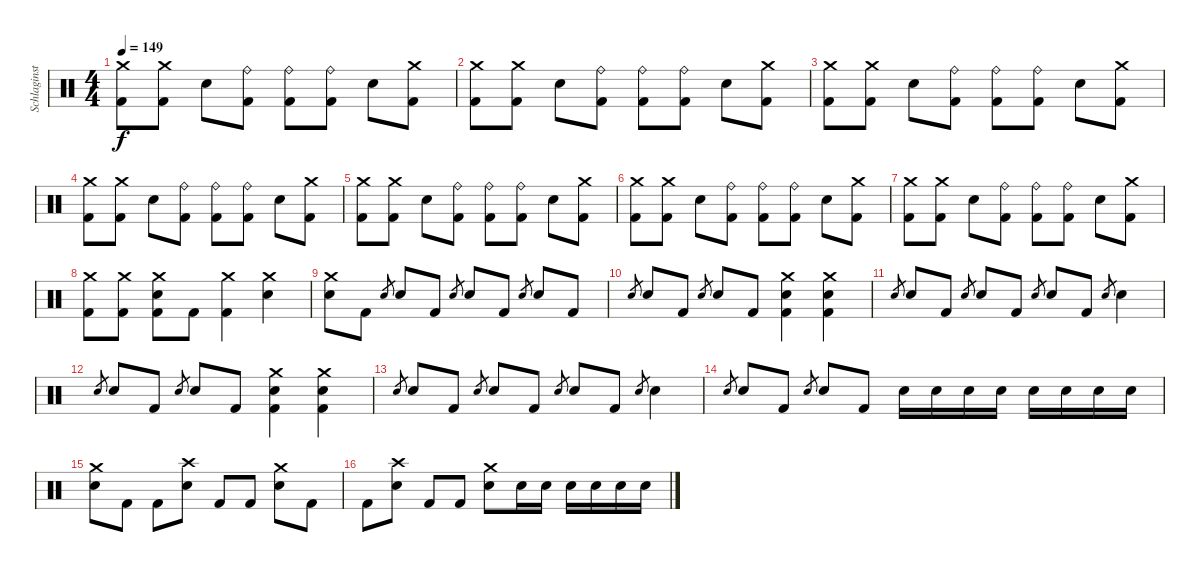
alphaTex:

\track ("Schlaginstrumente - Auswahl" "Schlaginst") {instrument percussion}
\staff {score}
\articulation defaults
\ts (4 4)
\tempo 149
\clef neutral
\ks c
("Crash medium (hit)" "Kick (hit) 2").8{dy f} ("Crash medium (hit)" "Kick (hit) 2").8 "Electric Snare (hit)".8 ("Ride (bell)" "Kick (hit) 2").8 ("Ride (bell)" "Kick (hit) 2").8 ("Ride (bell)" "Kick (hit) 2").8 "Electric Snare (hit)".8 ("Crash medium (hit)" "Kick (hit) 2").8 |
("Crash medium (hit)" "Kick (hit) 2").8 ("Crash medium (hit)" "Kick (hit) 2").8 "Electric Snare (hit)".8 ("Ride (bell)" "Kick (hit) 2").8 ("Ride (bell)" "Kick (hit) 2").8 ("Ride (bell)" "Kick (hit) 2").8 "Electric Snare (hit)".8 ("Crash medium (hit)" "Kick (hit) 2").8 |
("Crash medium (hit)" "Kick (hit) 2").8 ("Crash medium (hit)" "Kick (hit) 2").8 "Electric Snare (hit)".8 ("Ride (bell)" "Kick (hit) 2").8 ("Ride (bell)" "Kick (hit) 2").8 ("Ride (bell)" "Kick (hit) 2").8 "Electric Snare (hit)".8 ("Crash medium (hit)" "Kick (hit) 2").8 |
("Crash medium (hit)" "Kick (hit) 2").8 ("Crash medium (hit)" "Kick (hit) 2").8 "Electric Snare (hit)".8 ("Ride (bell)" "Kick (hit) 2").8 ("Ride (bell)" "Kick (hit) 2").8 ("Ride (bell)" "Kick (hit) 2").8 "Electric Snare (hit)".8 ("Crash medium (hit)" "Kick (hit) 2").8 |
("Crash medium (hit)" "Kick (hit) 2").8 ("Crash medium (hit)" "Kick (hit) 2").8 "Electric Snare (hit)".8 ("Ride (bell)" "Kick (hit) 2").8 ("Ride (bell)" "Kick (hit) 2").8 ("Ride (bell)" "Kick (hit) 2").8 "Electric Snare (hit)".8 ("Crash medium (hit)" "Kick (hit) 2").8 |
("Crash medium (hit)" "Kick (hit) 2").8 ("Crash medium (hit)" "Kick (hit) 2").8 "Electric Snare (hit)".8 ("Ride (bell)" "Kick (hit) 2").8 ("Ride (bell)" "Kick (hit) 2").8 ("Ride (bell)" "Kick (hit) 2").8 "Electric Snare (hit)".8 ("Crash medium (hit)" "Kick (hit) 2").8 |
("Crash medium (hit)" "Kick (hit) 2").8 ("Crash medium (hit)" "Kick (hit) 2").8 "Electric Snare (hit)".8 ("Ride (bell)" "Kick (hit) 2").8 ("Ride (bell)" "Kick (hit) 2").8 ("Ride (bell)" "Kick (hit) 2").8 "Electric Snare (hit)".8 ("Crash medium (hit)" "Kick (hit) 2").8 |
("Crash medium (hit)" "Kick (hit) 2").8 ("Crash medium (hit)" "Kick (hit) 2").8 ("Crash medium (hit)" "Electric Snare (hit)" "Kick (hit) 2").8 "Kick (hit) 2".8 ("Crash medium (hit)" "Kick (hit) 2").4 ("Crash medium (hit)" "Electric Snare (hit)").4 |
("Crash medium (hit)" "Electric Snare (hit)").8 "Kick (hit) 2".8 "Electric Snare (hit)".8{gr} "Electric Snare (hit)".8 "Kick (hit) 2".8 "Electric Snare (hit)".8{gr} "Electric Snare (hit)".8 "Kick (hit) 2".8 "Electric Snare (hit)".8{gr} "Electric Snare (hit)".8 "Kick (hit) 2".8 |
"Electric Snare (hit)".8{gr} "Electric Snare (hit)".8 "Kick (hit) 2".8 "Electric Snare (hit)".8{gr} "Electric Snare (hit)".8 "Kick (hit) 2".8 ("Crash medium (hit)" "Electric Snare (hit)" "Kick (hit) 2").4 ("Crash medium (hit)" "Electric Snare (hit)" "Kick (hit) 2").4 |
"Electric Snare (hit)".8{gr} "Electric Snare (hit)".8 "Kick (hit) 2".8 "Electric Snare (hit)".8{gr} "Electric Snare (hit)".8 "Kick (hit) 2".8 "Electric Snare (hit)".8{gr} "Electric Snare (hit)".8 "Kick (hit) 2".8 "Electric Snare (hit)".8{gr} "Electric Snare (hit)".4 |
"Electric Snare (hit)".8{gr} "Electric Snare (hit)".8 "Kick (hit) 2".8 "Electric Snare (hit)".8{gr} "Electric Snare (hit)".8 "Kick (hit) 2".8 ("Crash medium (hit)" "Electric Snare (hit)" "Kick (hit) 2").4 ("Crash medium (hit)" "Electric Snare (hit)" "Kick (hit) 2").4 |
"Electric Snare (hit)".8{gr} "Electric Snare (hit)".8 "Kick (hit) 2".8 "Electric Snare (hit)".8{gr} "Electric Snare (hit)".8 "Kick (hit) 2".8 "Electric Snare (hit)".8{gr} "Electric Snare (hit)".8 "Kick (hit) 2".8 "Electric Snare (hit)".8{gr} "Electric Snare (hit)".4 |
"Electric Snare (hit)".8{gr} "Electric Snare (hit)".8 "Kick (hit) 2".8 "Electric Snare (hit)".8{gr} "Electric Snare (hit)".8 "Kick (hit) 2".8 "Electric Snare (hit)".16 "Electric Snare (hit)".16 "Electric Snare (hit)".16 "Electric Snare (hit)".16 "Electric Snare (hit)".16 "Electric Snare (hit)".16 "Electric Snare (hit)".16 "Electric Snare (hit)".16 |
("Crash medium (hit)" "Electric Snare (hit)").8 "Kick (hit) 2".8 "Kick (hit) 2".8 ("Crash high (hit)" "Electric Snare (hit)").8 "Kick (hit) 2".8 "Kick (hit) 2".8 ("Crash medium (hit)" "Electric Snare (hit)").8 "Kick (hit) 2".8 |
"Kick (hit) 2".8 ("Crash high (hit)" "Electric Snare (hit)").8 "Kick (hit) 2".8 "Kick (hit) 2".8 ("Crash medium (hit)" "Electric Snare (hit)").8 "Electric Snare (hit)".16 "Electric Snare (hit)".16 "Electric Snare (hit)".16 "Electric Snare (hit)".16 "Electric Snare (hit)".16 "Electric Snare (hit)".16
